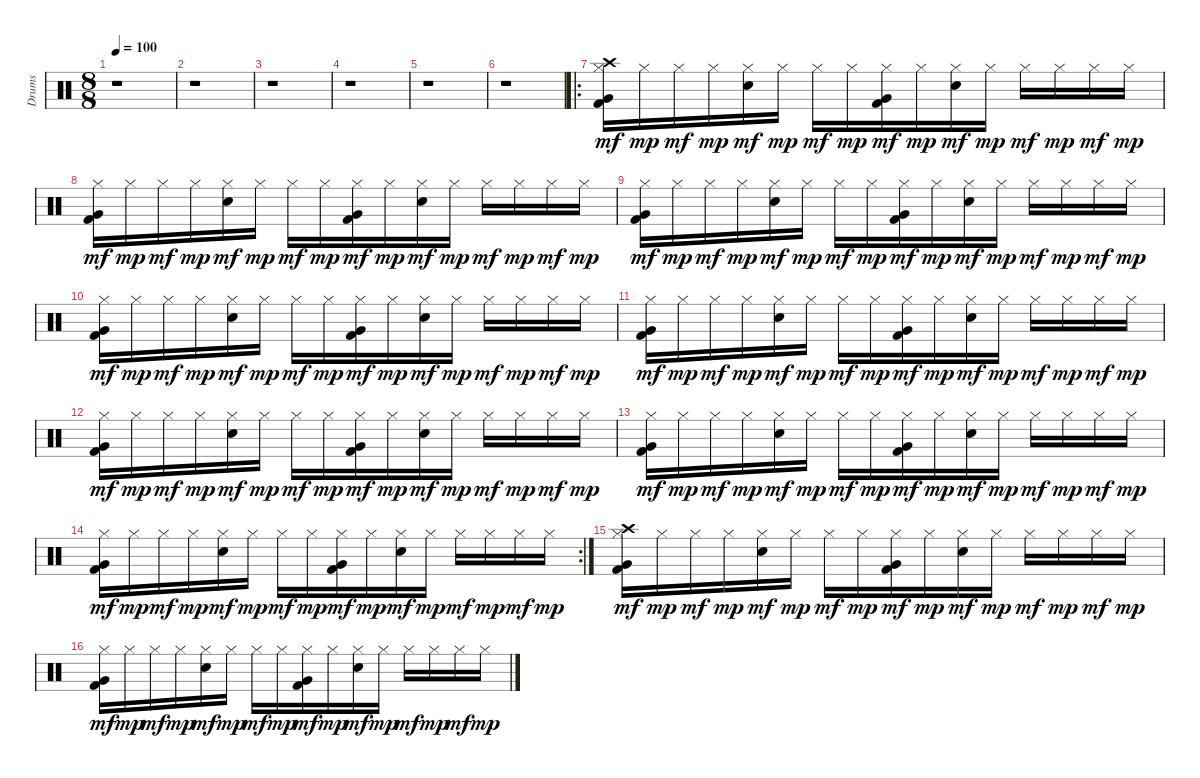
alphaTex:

\track ("Drums" "Drums") {instrument percussion}
\staff {score}
\articulation defaults
\ts (8 8)
\tempo 100
\clef neutral
\ks c
r.1{dy mp} |
r.1 |
r.1 |
r.1 |
r.1 |
r.1 |
\ro
("Crash high (hit)" "Kick (hit) 2" "Very Low Tom (hit)" "Hi-Hat (closed)").16{dy mf} "Hi-Hat (closed)".16{dy mp} "Hi-Hat (closed)".16{dy mf} "Hi-Hat (closed)".16{dy mp} ("Electric Snare (hit)" "Hi-Hat (closed)").16{dy mf} "Hi-Hat (closed)".16{dy mp} "Hi-Hat (closed)".16{dy mf} "Hi-Hat (closed)".16{dy mp} ("Kick (hit) 2" "Very Low Tom (hit)" "Hi-Hat (closed)").16{dy mf} "Hi-Hat (closed)".16{dy mp} ("Electric Snare (hit)" "Hi-Hat (closed)").16{dy mf} "Hi-Hat (closed)".16{dy mp} "Hi-Hat (closed)".16{dy mf} "Hi-Hat (closed)".16{dy mp} "Hi-Hat (closed)".16{dy mf} "Hi-Hat (closed)".16{dy mp} |
("Kick (hit) 2" "Very Low Tom (hit)" "Hi-Hat (closed)").16{dy mf} "Hi-Hat (closed)".16{dy mp} "Hi-Hat (closed)".16{dy mf} "Hi-Hat (closed)".16{dy mp} ("Electric Snare (hit)" "Hi-Hat (closed)").16{dy mf} "Hi-Hat (closed)".16{dy mp} "Hi-Hat (closed)".16{dy mf} "Hi-Hat (closed)".16{dy mp} ("Kick (hit) 2" "Very Low Tom (hit)" "Hi-Hat (closed)").16{dy mf} "Hi-Hat (closed)".16{dy mp} ("Electric Snare (hit)" "Hi-Hat (closed)").16{dy mf} "Hi-Hat (closed)".16{dy mp} "Hi-Hat (closed)".16{dy mf} "Hi-Hat (closed)".16{dy mp} "Hi-Hat (closed)".16{dy mf} "Hi-Hat (closed)".16{dy mp} |
("Kick (hit) 2" "Very Low Tom (hit)" "Hi-Hat (closed)").16{dy mf} "Hi-Hat (closed)".16{dy mp} "Hi-Hat (closed)".16{dy mf} "Hi-Hat (closed)".16{dy mp} ("Electric Snare (hit)" "Hi-Hat (closed)").16{dy mf} "Hi-Hat (closed)".16{dy mp} "Hi-Hat (closed)".16{dy mf} "Hi-Hat (closed)".16{dy mp} ("Kick (hit) 2" "Very Low Tom (hit)" "Hi-Hat (closed)").16{dy mf} "Hi-Hat (closed)".16{dy mp} ("Electric Snare (hit)" "Hi-Hat (closed)").16{dy mf} "Hi-Hat (closed)".16{dy mp} "Hi-Hat (closed)".16{dy mf} "Hi-Hat (closed)".16{dy mp} "Hi-Hat (closed)".16{dy mf} "Hi-Hat (closed)".16{dy mp} |
("Kick (hit) 2" "Very Low Tom (hit)" "Hi-Hat (closed)").16{dy mf} "Hi-Hat (closed)".16{dy mp} "Hi-Hat (closed)".16{dy mf} "Hi-Hat (closed)".16{dy mp} ("Electric Snare (hit)" "Hi-Hat (closed)").16{dy mf} "Hi-Hat (closed)".16{dy mp} "Hi-Hat (closed)".16{dy mf} "Hi-Hat (closed)".16{dy mp} ("Kick (hit) 2" "Very Low Tom (hit)" "Hi-Hat (closed)").16{dy mf} "Hi-Hat (closed)".16{dy mp} ("Electric Snare (hit)" "Hi-Hat (closed)").16{dy mf} "Hi-Hat (closed)".16{dy mp} "Hi-Hat (closed)".16{dy mf} "Hi-Hat (closed)".16{dy mp} "Hi-Hat (closed)".16{dy mf} "Hi-Hat (closed)".16{dy mp} |
("Kick (hit) 2" "Very Low Tom (hit)" "Hi-Hat (closed)").16{dy mf} "Hi-Hat (closed)".16{dy mp} "Hi-Hat (closed)".16{dy mf} "Hi-Hat (closed)".16{dy mp} ("Electric Snare (hit)" "Hi-Hat (closed)").16{dy mf} "Hi-Hat (closed)".16{dy mp} "Hi-Hat (closed)".16{dy mf} "Hi-Hat (closed)".16{dy mp} ("Kick (hit) 2" "Very Low Tom (hit)" "Hi-Hat (closed)").16{dy mf} "Hi-Hat (closed)".16{dy mp} ("Electric Snare (hit)" "Hi-Hat (closed)").16{dy mf} "Hi-Hat (closed)".16{dy mp} "Hi-Hat (closed)".16{dy mf} "Hi-Hat (closed)".16{dy mp} "Hi-Hat (closed)".16{dy mf} "Hi-Hat (closed)".16{dy mp} |
("Kick (hit) 2" "Very Low Tom (hit)" "Hi-Hat (closed)").16{dy mf} "Hi-Hat (closed)".16{dy mp} "Hi-Hat (closed)".16{dy mf} "Hi-Hat (closed)".16{dy mp} ("Electric Snare (hit)" "Hi-Hat (closed)").16{dy mf} "Hi-Hat (closed)".16{dy mp} "Hi-Hat (closed)".16{dy mf} "Hi-Hat (closed)".16{dy mp} ("Kick (hit) 2" "Very Low Tom (hit)" "Hi-Hat (closed)").16{dy mf} "Hi-Hat (closed)".16{dy mp} ("Electric Snare (hit)" "Hi-Hat (closed)").16{dy mf} "Hi-Hat (closed)".16{dy mp} "Hi-Hat (closed)".16{dy mf} "Hi-Hat (closed)".16{dy mp} "Hi-Hat (closed)".16{dy mf} "Hi-Hat (closed)".16{dy mp} |
("Kick (hit) 2" "Very Low Tom (hit)" "Hi-Hat (closed)").16{dy mf} "Hi-Hat (closed)".16{dy mp} "Hi-Hat (closed)".16{dy mf} "Hi-Hat (closed)".16{dy mp} ("Electric Snare (hit)" "Hi-Hat (closed)").16{dy mf} "Hi-Hat (closed)".16{dy mp} "Hi-Hat (closed)".16{dy mf} "Hi-Hat (closed)".16{dy mp} ("Kick (hit) 2" "Very Low Tom (hit)" "Hi-Hat (closed)").16{dy mf} "Hi-Hat (closed)".16{dy mp} ("Electric Snare (hit)" "Hi-Hat (closed)").16{dy mf} "Hi-Hat (closed)".16{dy mp} "Hi-Hat (closed)".16{dy mf} "Hi-Hat (closed)".16{dy mp} "Hi-Hat (closed)".16{dy mf} "Hi-Hat (closed)".16{dy mp} |
\rc 2
("Kick (hit) 2" "Very Low Tom (hit)" "Hi-Hat (closed)").16{dy mf} "Hi-Hat (closed)".16{dy mp} "Hi-Hat (closed)".16{dy mf} "Hi-Hat (closed)".16{dy mp} ("Electric Snare (hit)" "Hi-Hat (closed)").16{dy mf} "Hi-Hat (closed)".16{dy mp} "Hi-Hat (closed)".16{dy mf} "Hi-Hat (closed)".16{dy mp} ("Kick (hit) 2" "Very Low Tom (hit)" "Hi-Hat (closed)").16{dy mf} "Hi-Hat (closed)".16{dy mp} ("Electric Snare (hit)" "Hi-Hat (closed)").16{dy mf} "Hi-Hat (closed)".16{dy mp} "Hi-Hat (closed)".16{dy mf} "Hi-Hat (closed)".16{dy mp} "Hi-Hat (closed)".16{dy mf} "Hi-Hat (closed)".16{dy mp} |
("Crash high (hit)" "Kick (hit) 2" "Very Low Tom (hit)" "Hi-Hat (closed)").16{dy mf} "Hi-Hat (closed)".16{dy mp} "Hi-Hat (closed)".16{dy mf} "Hi-Hat (closed)".16{dy mp} ("Electric Snare (hit)" "Hi-Hat (closed)").16{dy mf} "Hi-Hat (closed)".16{dy mp} "Hi-Hat (closed)".16{dy mf} "Hi-Hat (closed)".16{dy mp} ("Kick (hit) 2" "Very Low Tom (hit)" "Hi-Hat (closed)").16{dy mf} "Hi-Hat (closed)".16{dy mp} ("Electric Snare (hit)" "Hi-Hat (closed)").16{dy mf} "Hi-Hat (closed)".16{dy mp} "Hi-Hat (closed)".16{dy mf} "Hi-Hat (closed)".16{dy mp} "Hi-Hat (closed)".16{dy mf} "Hi-Hat (closed)".16{dy mp} |
("Kick (hit) 2" "Very Low Tom (hit)" "Hi-Hat (closed)").16{dy mf} "Hi-Hat (closed)".16{dy mp} "Hi-Hat (closed)".16{dy mf} "Hi-Hat (closed)".16{dy mp} ("Electric Snare (hit)" "Hi-Hat (closed)").16{dy mf} "Hi-Hat (closed)".16{dy mp} "Hi-Hat (closed)".16{dy mf} "Hi-Hat (closed)".16{dy mp} ("Kick (hit) 2" "Very Low Tom (hit)" "Hi-Hat (closed)").16{dy mf} "Hi-Hat (closed)".16{dy mp} ("Electric Snare (hit)" "Hi-Hat (closed)").16{dy mf} "Hi-Hat (closed)".16{dy mp} "Hi-Hat (closed)".16{dy mf} "Hi-Hat (closed)".16{dy mp} "Hi-Hat (closed)".16{dy mf} "Hi-Hat (closed)".16{dy mp}
